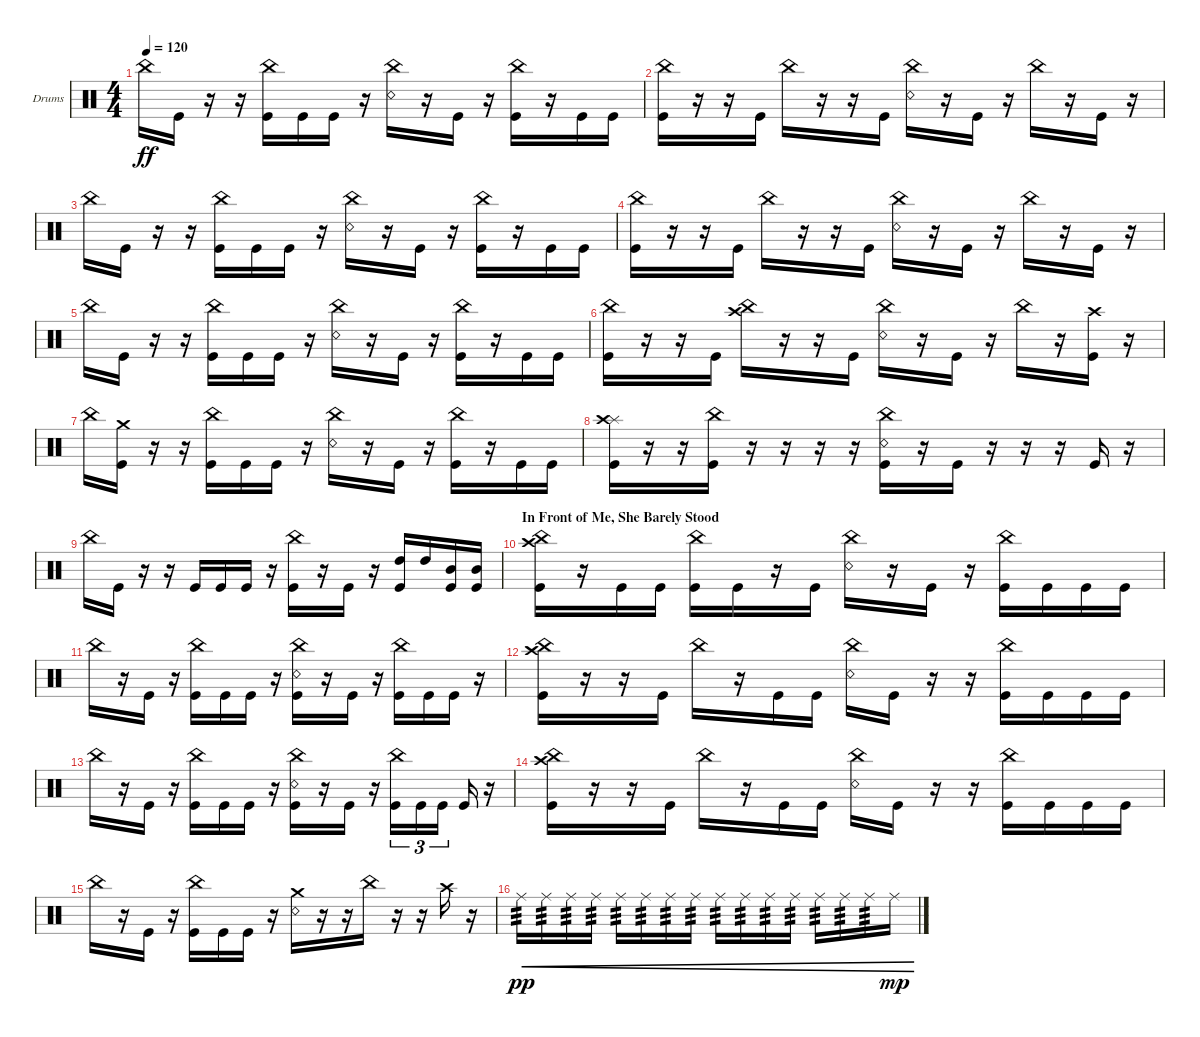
\defaultSystemsLayout 4
\bracketExtendMode groupsimilarinstruments
\firstSystemTrackNameOrientation horizontal
\otherSystemsTrackNameOrientation horizontal
\track ("Drumkit" "Drums") {instrument percussion}
\staff {score}
\articulation defaults
\ts (4 4)
\tempo 120
\clef neutral
\ks c "China (hit)".16{dy ff} "Kick (hit)".16
r.16 r.16 ("China (hit)" "Kick (hit)").16 "Kick (hit)".16 "Kick (hit)".16 r.16 ("China (hit)" "Snare (rim shot)").16 r.16 "Kick (hit)".16 r.16 ("China (hit)" "Kick (hit)").16 r.16 "Kick (hit)".16 "Kick (hit)".16 |
("China (hit)" "Kick (hit)").16 r.16 r.16 "Kick (hit)".16 "China (hit)".16 r.16 r.16 "Kick (hit)".16 ("China (hit)" "Snare (rim shot)").16 r.16 "Kick (hit)".16 r.16 "China (hit)".16 r.16 "Kick (hit)".16 r.16 |
"China (hit)".16 "Kick (hit)".16 r.16 r.16 ("China (hit)" "Kick (hit)").16 "Kick (hit)".16 "Kick (hit)".16 r.16 ("China (hit)" "Snare (rim shot)").16 r.16 "Kick (hit)".16 r.16 ("China (hit)" "Kick (hit)").16 r.16 "Kick (hit)".16 "Kick (hit)".16 |
("China (hit)" "Kick (hit)").16 r.16 r.16 "Kick (hit)".16 "China (hit)".16 r.16 r.16 "Kick (hit)".16 ("China (hit)" "Snare (rim shot)").16 r.16 "Kick (hit)".16 r.16 "China (hit)".16 r.16 "Kick (hit)".16 r.16 |
"China (hit)".16 "Kick (hit)".16 r.16 r.16 ("Kick (hit)" "China (hit)").16 "Kick (hit)".16 "Kick (hit)".16 r.16 ("Snare (rim shot)" "China (hit)").16 r.16 "Kick (hit)".16 r.16 ("China (hit)" "Kick (hit)").16 r.16 "Kick (hit)".16 "Kick (hit)".16 |
("China (hit)" "Kick (hit)").16 r.16 r.16 "Kick (hit)".16 ("China (hit)" "Crash high (hit)").16 r.16 r.16 "Kick (hit)".16 ("China (hit)" "Snare (rim shot)").16 r.16 "Kick (hit)".16 r.16 "China (hit)".16 r.16 ("Kick (hit)" "Crash high (hit)").16 r.16 |
"China (hit)".16 ("Kick (hit)" "Crash medium (hit)").16 r.16 r.16 ("Kick (hit)" "China (hit)").16 "Kick (hit)".16 "Kick (hit)".16 r.16 ("Snare (rim shot)" "China (hit)").16 r.16 "Kick (hit)".16 r.16 ("China (hit)" "Kick (hit)").16 r.16 "Kick (hit)".16 "Kick (hit)".16 |
("Splash (hit)" "Crash high (hit)" "Kick (hit)").16 r.16 r.16 ("China (hit)" "Kick (hit)").16 r.16 r.16 r.16 r.16 ("China (hit)" "Snare (rim shot)" "Kick (hit)").16 r.16 "Kick (hit)".16 r.16 r.16 r.16 "Kick (hit)".16 r.16 |
"China (hit)".16 "Kick (hit)".16 r.16 r.16 "Kick (hit)".16 "Kick (hit)".16 "Kick (hit)".16 r.16 ("Kick (hit)" "China (hit)").16 r.16 "Kick (hit)".16 r.16 ("Kick (hit)" "High Tom (hit)").16 "High Tom (hit)".16 ("Kick (hit)" "Mid Tom (hit)").16 ("Kick (hit)" "Mid Tom (hit)").16 |
\section ("" "In Front of Me, She Barely Stood")
("Crash high (hit)" "China (hit)" "Kick (hit)").16 r.16 "Kick (hit)".16 "Kick (hit)".16 ("China (hit)" "Kick (hit)").16 "Kick (hit)".16 r.16 "Kick (hit)".16 ("China (hit)" "Snare (rim shot)").16 r.16 "Kick (hit)".16 r.16 ("China (hit)" "Kick (hit)").16 "Kick (hit)".16 "Kick (hit)".16 "Kick (hit)".16 |
"China (hit)".16 r.16 "Kick (hit)".16 r.16 ("China (hit)" "Kick (hit)").16 "Kick (hit)".16 "Kick (hit)".16 r.16 ("China (hit)" "Snare (rim shot)" "Kick (hit)").16 r.16 "Kick (hit)".16 r.16 ("China (hit)" "Kick (hit)").16 "Kick (hit)".16 "Kick (hit)".16 r.16 |
("Crash high (hit)" "China (hit)" "Kick (hit)").16 r.16 r.16 "Kick (hit)".16 "China (hit)".16 r.16 "Kick (hit)".16 "Kick (hit)".16 ("China (hit)" "Snare (rim shot)").16 "Kick (hit)".16 r.16 r.16 ("China (hit)" "Kick (hit)").16 "Kick (hit)".16 "Kick (hit)".16 "Kick (hit)".16 |
"China (hit)".16 r.16 "Kick (hit)".16 r.16 ("China (hit)" "Kick (hit)").16 "Kick (hit)".16 "Kick (hit)".16 r.16 ("China (hit)" "Snare (rim shot)" "Kick (hit)").16 r.16 "Kick (hit)".16 r.16 ("China (hit)" "Kick (hit)").16{tu (3 2)} "Kick (hit)".16{tu (3 2)} "Kick (hit)".16{tu (3 2)} "Kick (hit)".16 r.16 |
("Crash high (hit)" "China (hit)" "Kick (hit)").16 r.16 r.16 "Kick (hit)".16 "China (hit)".16 r.16 "Kick (hit)".16 "Kick (hit)".16 ("China (hit)" "Snare (rim shot)").16 "Kick (hit)".16 r.16 r.16 ("China (hit)" "Kick (hit)").16 "Kick (hit)".16 "Kick (hit)".16 "Kick (hit)".16 |
"China (hit)".16 r.16 "Kick (hit)".16 r.16 ("China (hit)" "Kick (hit)").16 "Kick (hit)".16 "Kick (hit)".16 r.16 ("Crash medium (hit)" "Snare (rim shot)").16 r.16 r.16 "China (hit)".16 r.16 r.16 "Crash high (hit)".16 r.16 |
"Ride (middle)".16{tp 3 cre dy pp} "Ride (middle)".16{tp 3 cre} "Ride (middle)".16{tp 3 cre} "Ride (middle)".16{tp 3 cre} "Ride (middle)".16{tp 3 cre} "Ride (middle)".16{tp 3 cre} "Ride (middle)".16{tp 3 cre} "Ride (middle)".16{tp 3 cre} "Ride (middle)".16{tp 3 cre} "Ride (middle)".16{tp 3 cre} "Ride (middle)".16{tp 3 cre} "Ride (middle)".16{tp 3 cre} "Ride (middle)".16{tp 3 cre} "Ride (middle)".16{tp 3 cre} "Ride (middle)".16{tp 3 cre} "Ride (middle)".16{cre dy mp}
